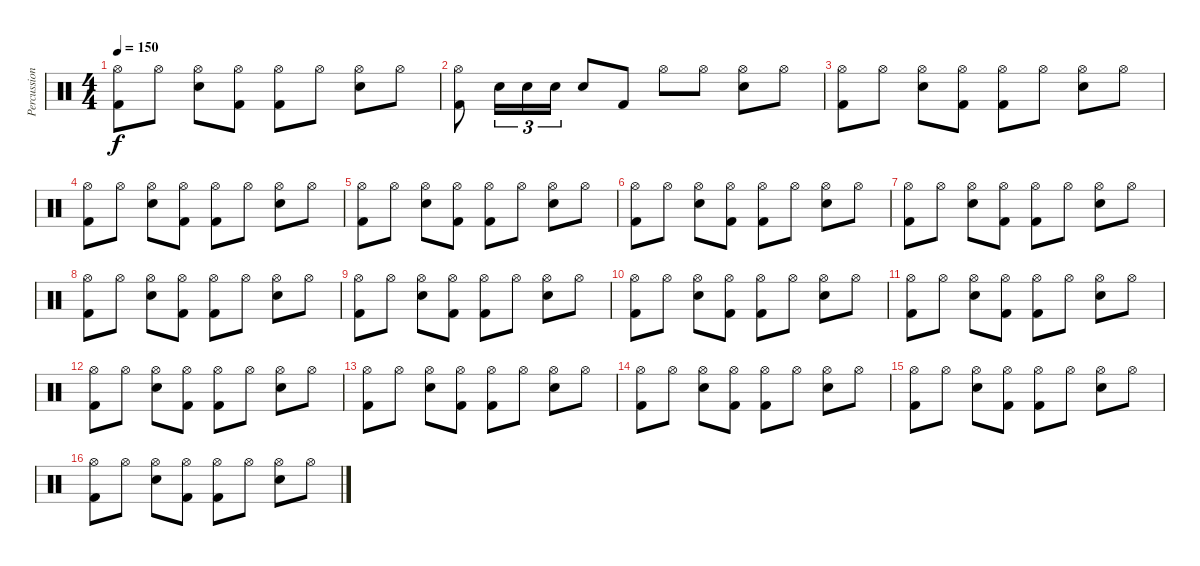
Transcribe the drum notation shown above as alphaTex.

\track ("Percussion" "Percussion") {instrument percussion}
\staff {score}
\articulation defaults
\ts (4 4)
\tempo 150
\clef neutral
\ks c
("Hi-Hat (open)" "Kick (hit) 2").8{dy f} "Hi-Hat (open)".8 ("Hi-Hat (open)" "Snare (hit) 2").8 ("Hi-Hat (open)" "Kick (hit) 2").8 ("Hi-Hat (open)" "Kick (hit) 2").8 "Hi-Hat (open)".8 ("Hi-Hat (open)" "Snare (hit) 2").8 "Hi-Hat (open)".8 |
("Hi-Hat (open)" "Kick (hit) 2").8 "Snare (hit) 2".16{tu (3 2)} "Snare (hit) 2".16{tu (3 2)} "Snare (hit) 2".16{tu (3 2)} "Snare (hit) 2".8 "Kick (hit) 2".8 "Hi-Hat (open)".8 "Hi-Hat (open)".8 ("Hi-Hat (open)" "Snare (hit) 2").8 "Hi-Hat (open)".8 |
("Hi-Hat (open)" "Kick (hit) 2").8 "Hi-Hat (open)".8 ("Hi-Hat (open)" "Snare (hit) 2").8 ("Hi-Hat (open)" "Kick (hit) 2").8 ("Hi-Hat (open)" "Kick (hit) 2").8 "Hi-Hat (open)".8 ("Hi-Hat (open)" "Snare (hit) 2").8 "Hi-Hat (open)".8 |
("Hi-Hat (open)" "Kick (hit) 2").8 "Hi-Hat (open)".8 ("Hi-Hat (open)" "Snare (hit) 2").8 ("Hi-Hat (open)" "Kick (hit) 2").8 ("Hi-Hat (open)" "Kick (hit) 2").8 "Hi-Hat (open)".8 ("Hi-Hat (open)" "Snare (hit) 2").8 "Hi-Hat (open)".8 |
("Hi-Hat (open)" "Kick (hit) 2").8 "Hi-Hat (open)".8 ("Hi-Hat (open)" "Snare (hit) 2").8 ("Hi-Hat (open)" "Kick (hit) 2").8 ("Hi-Hat (open)" "Kick (hit) 2").8 "Hi-Hat (open)".8 ("Hi-Hat (open)" "Snare (hit) 2").8 "Hi-Hat (open)".8 |
("Hi-Hat (open)" "Kick (hit) 2").8 "Hi-Hat (open)".8 ("Hi-Hat (open)" "Snare (hit) 2").8 ("Hi-Hat (open)" "Kick (hit) 2").8 ("Hi-Hat (open)" "Kick (hit) 2").8 "Hi-Hat (open)".8 ("Hi-Hat (open)" "Snare (hit) 2").8 "Hi-Hat (open)".8 |
("Hi-Hat (open)" "Kick (hit) 2").8 "Hi-Hat (open)".8 ("Hi-Hat (open)" "Snare (hit) 2").8 ("Hi-Hat (open)" "Kick (hit) 2").8 ("Hi-Hat (open)" "Kick (hit) 2").8 "Hi-Hat (open)".8 ("Hi-Hat (open)" "Snare (hit) 2").8 "Hi-Hat (open)".8 |
("Hi-Hat (open)" "Kick (hit) 2").8 "Hi-Hat (open)".8 ("Hi-Hat (open)" "Snare (hit) 2").8 ("Hi-Hat (open)" "Kick (hit) 2").8 ("Hi-Hat (open)" "Kick (hit) 2").8 "Hi-Hat (open)".8 ("Hi-Hat (open)" "Snare (hit) 2").8 "Hi-Hat (open)".8 |
("Hi-Hat (open)" "Kick (hit) 2").8 "Hi-Hat (open)".8 ("Hi-Hat (open)" "Snare (hit) 2").8 ("Hi-Hat (open)" "Kick (hit) 2").8 ("Hi-Hat (open)" "Kick (hit) 2").8 "Hi-Hat (open)".8 ("Hi-Hat (open)" "Snare (hit) 2").8 "Hi-Hat (open)".8 |
("Hi-Hat (open)" "Kick (hit) 2").8 "Hi-Hat (open)".8 ("Hi-Hat (open)" "Snare (hit) 2").8 ("Hi-Hat (open)" "Kick (hit) 2").8 ("Hi-Hat (open)" "Kick (hit) 2").8 "Hi-Hat (open)".8 ("Hi-Hat (open)" "Snare (hit) 2").8 "Hi-Hat (open)".8 |
("Hi-Hat (open)" "Kick (hit) 2").8 "Hi-Hat (open)".8 ("Hi-Hat (open)" "Snare (hit) 2").8 ("Hi-Hat (open)" "Kick (hit) 2").8 ("Hi-Hat (open)" "Kick (hit) 2").8 "Hi-Hat (open)".8 ("Hi-Hat (open)" "Snare (hit) 2").8 "Hi-Hat (open)".8 |
("Hi-Hat (open)" "Kick (hit) 2").8 "Hi-Hat (open)".8 ("Hi-Hat (open)" "Snare (hit) 2").8 ("Hi-Hat (open)" "Kick (hit) 2").8 ("Hi-Hat (open)" "Kick (hit) 2").8 "Hi-Hat (open)".8 ("Hi-Hat (open)" "Snare (hit) 2").8 "Hi-Hat (open)".8 |
("Hi-Hat (open)" "Kick (hit) 2").8 "Hi-Hat (open)".8 ("Hi-Hat (open)" "Snare (hit) 2").8 ("Hi-Hat (open)" "Kick (hit) 2").8 ("Hi-Hat (open)" "Kick (hit) 2").8 "Hi-Hat (open)".8 ("Hi-Hat (open)" "Snare (hit) 2").8 "Hi-Hat (open)".8 |
("Hi-Hat (open)" "Kick (hit) 2").8 "Hi-Hat (open)".8 ("Hi-Hat (open)" "Snare (hit) 2").8 ("Hi-Hat (open)" "Kick (hit) 2").8 ("Hi-Hat (open)" "Kick (hit) 2").8 "Hi-Hat (open)".8 ("Hi-Hat (open)" "Snare (hit) 2").8 "Hi-Hat (open)".8 |
("Hi-Hat (open)" "Kick (hit) 2").8 "Hi-Hat (open)".8 ("Hi-Hat (open)" "Snare (hit) 2").8 ("Hi-Hat (open)" "Kick (hit) 2").8 ("Hi-Hat (open)" "Kick (hit) 2").8 "Hi-Hat (open)".8 ("Hi-Hat (open)" "Snare (hit) 2").8 "Hi-Hat (open)".8 |
("Hi-Hat (open)" "Kick (hit) 2").8 "Hi-Hat (open)".8 ("Hi-Hat (open)" "Snare (hit) 2").8 ("Hi-Hat (open)" "Kick (hit) 2").8 ("Hi-Hat (open)" "Kick (hit) 2").8 "Hi-Hat (open)".8 ("Hi-Hat (open)" "Snare (hit) 2").8 "Hi-Hat (open)".8
